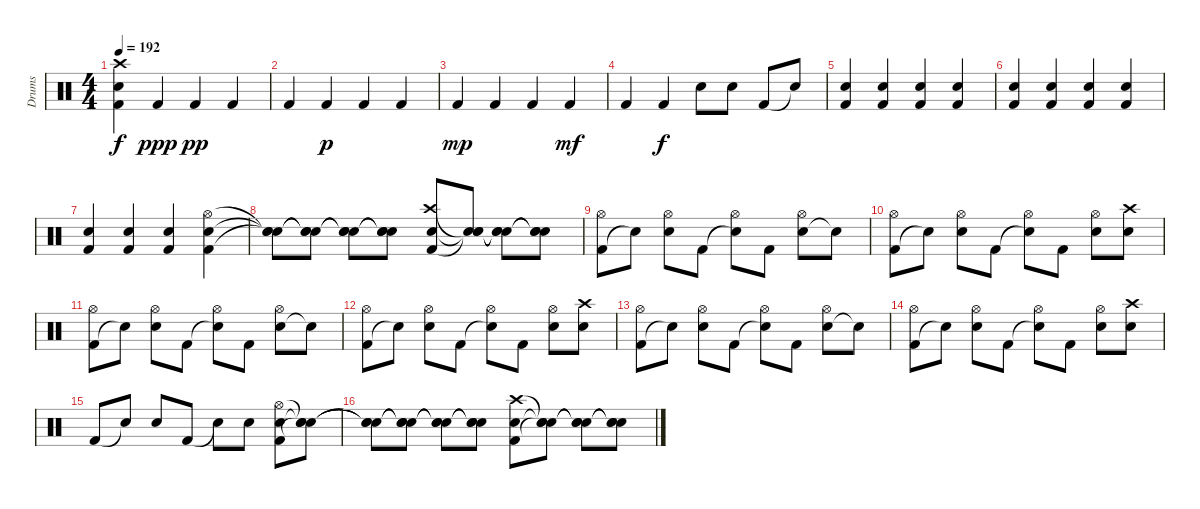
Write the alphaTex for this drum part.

\track ("Drums" "Drums") {instrument percussion}
\staff {score}
\articulation defaults
\ts (4 4)
\tempo 192
\clef neutral
\ks c
("Electric Snare (hit)" "Kick (hit) 2" "Crash high (hit)").4{dy f} "Kick (hit) 2".4{dy ppp} "Kick (hit) 2".4{dy pp} "Kick (hit) 2".4 |
"Kick (hit) 2".4 "Kick (hit) 2".4{dy p} "Kick (hit) 2".4 "Kick (hit) 2".4 |
"Kick (hit) 2".4{dy mp} "Kick (hit) 2".4 "Kick (hit) 2".4 "Kick (hit) 2".4{dy mf} |
"Kick (hit) 2".4 "Kick (hit) 2".4{dy f} "Electric Snare (hit)".8 "Electric Snare (hit)".8 "Kick (hit) 2".8 "Snare (hit)"{t}.8 |
("Electric Snare (hit)" "Kick (hit) 2").4 ("Electric Snare (hit)" "Kick (hit) 2").4 ("Electric Snare (hit)" "Kick (hit) 2").4 ("Electric Snare (hit)" "Kick (hit) 2").4 |
("Electric Snare (hit)" "Kick (hit) 2").4 ("Electric Snare (hit)" "Kick (hit) 2").4 ("Electric Snare (hit)" "Kick (hit) 2").4 ("Electric Snare (hit)" "Kick (hit) 2").4 |
("Electric Snare (hit)" "Kick (hit) 2").4 ("Electric Snare (hit)" "Kick (hit) 2").4 ("Electric Snare (hit)" "Kick (hit) 2").4 ("Kick (hit) 2" "Snare (hit) 2" "Hi-Hat (open)").4 |
("Snare (hit)"{t} "Snare (hit)"{t} "Snare (hit)"{t}).8 ("Snare (hit)"{t} "Snare (hit)"{t} "Snare (hit)"{t}).8 ("Snare (hit)"{t} "Snare (hit)"{t} "Snare (hit)"{t}).8 ("Snare (hit)"{t} "Snare (hit)"{t} "Snare (hit)"{t}).8 ("Kick (hit) 2" "Snare (hit) 2" "Crash high (hit)").8 ("Snare (hit)"{t} "Snare (hit)"{t} "Snare (hit)"{t}).8 ("Snare (hit)"{t} "Snare (hit)"{t} "Snare (hit)"{t}).8 ("Snare (hit)"{t} "Snare (hit)"{t} "Snare (hit)"{t}).8 |
("Kick (hit) 2" "Hi-Hat (open)").8 "Snare (hit)"{t}.8 ("Electric Snare (hit)" "Hi-Hat (open)").8 "Kick (hit) 2".8 ("Snare (hit)"{t} "Hi-Hat (open)").8 "Kick (hit) 2".8 ("Electric Snare (hit)" "Hi-Hat (open)").8 "Electric Snare (hit)"{t}.8 |
("Kick (hit) 2" "Hi-Hat (open)").8 "Snare (hit)"{t}.8 ("Electric Snare (hit)" "Hi-Hat (open)").8 "Kick (hit) 2".8 ("Snare (hit)"{t} "Hi-Hat (open)").8 "Kick (hit) 2".8 ("Electric Snare (hit)" "Hi-Hat (open)").8 ("Electric Snare (hit)" "Crash high (hit)").8 |
("Kick (hit) 2" "Hi-Hat (open)").8 "Snare (hit)"{t}.8 ("Electric Snare (hit)" "Hi-Hat (open)").8 "Kick (hit) 2".8 ("Snare (hit)"{t} "Hi-Hat (open)").8 "Kick (hit) 2".8 ("Electric Snare (hit)" "Hi-Hat (open)").8 "Electric Snare (hit)"{t}.8 |
("Kick (hit) 2" "Hi-Hat (open)").8 "Snare (hit)"{t}.8 ("Electric Snare (hit)" "Hi-Hat (open)").8 "Kick (hit) 2".8 ("Snare (hit)"{t} "Hi-Hat (open)").8 "Kick (hit) 2".8 ("Electric Snare (hit)" "Hi-Hat (open)").8 ("Electric Snare (hit)" "Crash high (hit)").8 |
("Kick (hit) 2" "Hi-Hat (open)").8 "Snare (hit)"{t}.8 ("Electric Snare (hit)" "Hi-Hat (open)").8 "Kick (hit) 2".8 ("Snare (hit)"{t} "Hi-Hat (open)").8 "Kick (hit) 2".8 ("Electric Snare (hit)" "Hi-Hat (open)").8 "Electric Snare (hit)"{t}.8 |
("Kick (hit) 2" "Hi-Hat (open)").8 "Snare (hit)"{t}.8 ("Electric Snare (hit)" "Hi-Hat (open)").8 "Kick (hit) 2".8 ("Snare (hit)"{t} "Hi-Hat (open)").8 "Kick (hit) 2".8 ("Electric Snare (hit)" "Hi-Hat (open)").8 ("Electric Snare (hit)" "Crash high (hit)").8 |
"Kick (hit) 2".8 "Snare (hit)"{t}.8 "Electric Snare (hit)".8 "Kick (hit) 2".8 "Snare (hit)"{t}.8 "Electric Snare (hit)".8 ("Kick (hit) 2" "Snare (hit) 2" "Hi-Hat (open)").8 ("Snare (hit)"{t} "Snare (hit)"{t} "Snare (hit)"{t}).8 |
("Snare (hit)"{t} "Snare (hit)"{t} "Snare (hit)"{t}).8 ("Snare (hit)"{t} "Snare (hit)"{t} "Snare (hit)"{t}).8 ("Snare (hit)"{t} "Snare (hit)"{t} "Snare (hit)"{t}).8 ("Snare (hit)"{t} "Snare (hit)"{t} "Snare (hit)"{t}).8 ("Kick (hit) 2" "Electric Snare (hit)" "Crash high (hit)").8 ("Snare (hit)"{t} "Snare (hit)"{t} "Snare (hit)"{t}).8 ("Snare (hit)"{t} "Snare (hit)"{t} "Snare (hit)"{t}).8 ("Snare (hit)"{t} "Snare (hit)"{t} "Snare (hit)"{t}).8
